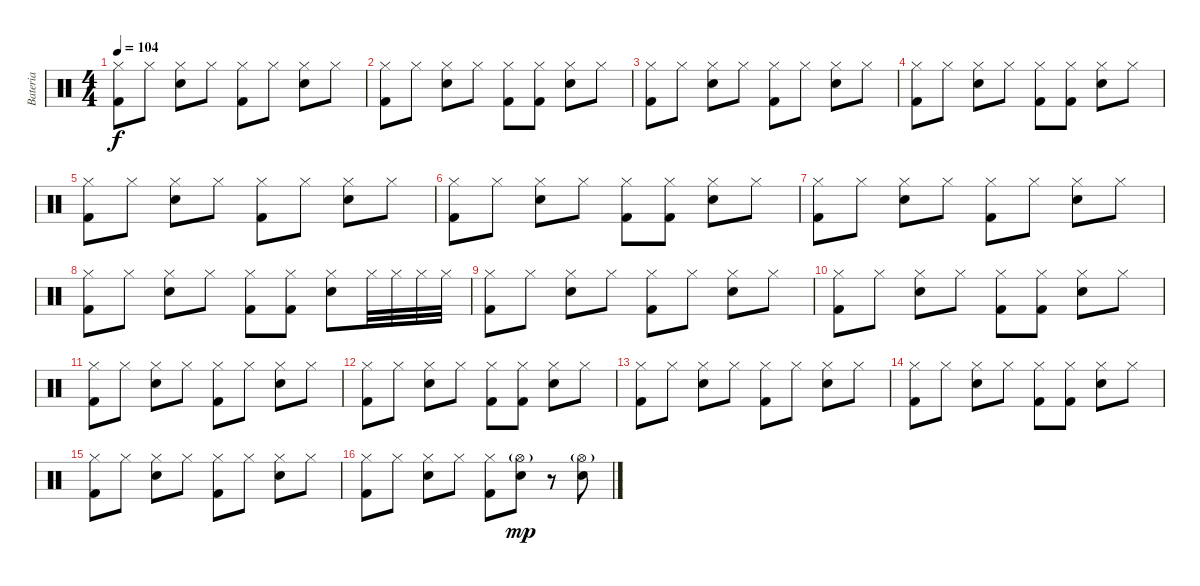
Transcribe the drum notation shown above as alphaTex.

\track ("Bateria" "Bateria") {instrument percussion}
\staff {score}
\articulation defaults
\ts (4 4)
\tempo 104
\clef neutral
\ks c
("Hi-Hat (closed)" "Kick (hit) 2").8{dy f} "Hi-Hat (closed)".8 ("Hi-Hat (closed)" "Snare (hit) 2").8 "Hi-Hat (closed)".8 ("Hi-Hat (closed)" "Kick (hit) 2").8 "Hi-Hat (closed)".8 ("Hi-Hat (closed)" "Snare (hit) 2").8 "Hi-Hat (closed)".8 |
("Hi-Hat (closed)" "Kick (hit) 2").8 "Hi-Hat (closed)".8 ("Hi-Hat (closed)" "Snare (hit) 2").8 "Hi-Hat (closed)".8 ("Hi-Hat (closed)" "Kick (hit) 2").8 ("Hi-Hat (closed)" "Kick (hit) 2").8 ("Hi-Hat (closed)" "Snare (hit) 2").8 "Hi-Hat (closed)".8 |
("Hi-Hat (closed)" "Kick (hit) 2").8 "Hi-Hat (closed)".8 ("Hi-Hat (closed)" "Snare (hit) 2").8 "Hi-Hat (closed)".8 ("Hi-Hat (closed)" "Kick (hit) 2").8 "Hi-Hat (closed)".8 ("Hi-Hat (closed)" "Snare (hit) 2").8 "Hi-Hat (closed)".8 |
("Hi-Hat (closed)" "Kick (hit) 2").8 "Hi-Hat (closed)".8 ("Hi-Hat (closed)" "Snare (hit) 2").8 "Hi-Hat (closed)".8 ("Hi-Hat (closed)" "Kick (hit) 2").8 ("Hi-Hat (closed)" "Kick (hit) 2").8 ("Hi-Hat (closed)" "Snare (hit) 2").8 "Hi-Hat (closed)".8 |
("Hi-Hat (closed)" "Kick (hit) 2").8 "Hi-Hat (closed)".8 ("Hi-Hat (closed)" "Snare (hit) 2").8 "Hi-Hat (closed)".8 ("Hi-Hat (closed)" "Kick (hit) 2").8 "Hi-Hat (closed)".8 ("Hi-Hat (closed)" "Snare (hit) 2").8 "Hi-Hat (closed)".8 |
("Hi-Hat (closed)" "Kick (hit) 2").8 "Hi-Hat (closed)".8 ("Hi-Hat (closed)" "Snare (hit) 2").8 "Hi-Hat (closed)".8 ("Hi-Hat (closed)" "Kick (hit) 2").8 ("Hi-Hat (closed)" "Kick (hit) 2").8 ("Hi-Hat (closed)" "Snare (hit) 2").8 "Hi-Hat (closed)".8 |
("Hi-Hat (closed)" "Kick (hit) 2").8 "Hi-Hat (closed)".8 ("Hi-Hat (closed)" "Snare (hit) 2").8 "Hi-Hat (closed)".8 ("Hi-Hat (closed)" "Kick (hit) 2").8 "Hi-Hat (closed)".8 ("Hi-Hat (closed)" "Snare (hit) 2").8 "Hi-Hat (closed)".8 |
("Hi-Hat (closed)" "Kick (hit) 2").8 "Hi-Hat (closed)".8 ("Hi-Hat (closed)" "Snare (hit) 2").8 "Hi-Hat (closed)".8 ("Hi-Hat (closed)" "Kick (hit) 2").8 ("Hi-Hat (closed)" "Kick (hit) 2").8 ("Hi-Hat (closed)" "Snare (hit) 2").8 "Hi-Hat (closed)".32 "Hi-Hat (closed)".32 "Hi-Hat (closed)".32 "Hi-Hat (closed)".32 |
("Hi-Hat (closed)" "Kick (hit) 2").8 "Hi-Hat (closed)".8 ("Hi-Hat (closed)" "Snare (hit) 2").8 "Hi-Hat (closed)".8 ("Hi-Hat (closed)" "Kick (hit) 2").8 "Hi-Hat (closed)".8 ("Hi-Hat (closed)" "Snare (hit) 2").8 "Hi-Hat (closed)".8 |
("Hi-Hat (closed)" "Kick (hit) 2").8 "Hi-Hat (closed)".8 ("Hi-Hat (closed)" "Snare (hit) 2").8 "Hi-Hat (closed)".8 ("Hi-Hat (closed)" "Kick (hit) 2").8 ("Hi-Hat (closed)" "Kick (hit) 2").8 ("Hi-Hat (closed)" "Snare (hit) 2").8 "Hi-Hat (closed)".8 |
("Hi-Hat (closed)" "Kick (hit) 2").8 "Hi-Hat (closed)".8 ("Hi-Hat (closed)" "Snare (hit) 2").8 "Hi-Hat (closed)".8 ("Hi-Hat (closed)" "Kick (hit) 2").8 "Hi-Hat (closed)".8 ("Hi-Hat (closed)" "Snare (hit) 2").8 "Hi-Hat (closed)".8 |
("Hi-Hat (closed)" "Kick (hit) 2").8 "Hi-Hat (closed)".8 ("Hi-Hat (closed)" "Snare (hit) 2").8 "Hi-Hat (closed)".8 ("Hi-Hat (closed)" "Kick (hit) 2").8 ("Hi-Hat (closed)" "Kick (hit) 2").8 ("Hi-Hat (closed)" "Snare (hit) 2").8 "Hi-Hat (closed)".8 |
("Hi-Hat (closed)" "Kick (hit) 2").8 "Hi-Hat (closed)".8 ("Hi-Hat (closed)" "Snare (hit) 2").8 "Hi-Hat (closed)".8 ("Hi-Hat (closed)" "Kick (hit) 2").8 "Hi-Hat (closed)".8 ("Hi-Hat (closed)" "Snare (hit) 2").8 "Hi-Hat (closed)".8 |
("Hi-Hat (closed)" "Kick (hit) 2").8 "Hi-Hat (closed)".8 ("Hi-Hat (closed)" "Snare (hit) 2").8 "Hi-Hat (closed)".8 ("Hi-Hat (closed)" "Kick (hit) 2").8 ("Hi-Hat (closed)" "Kick (hit) 2").8 ("Hi-Hat (closed)" "Snare (hit) 2").8 "Hi-Hat (closed)".8 |
("Hi-Hat (closed)" "Kick (hit) 2").8 "Hi-Hat (closed)".8 ("Hi-Hat (closed)" "Snare (hit) 2").8 "Hi-Hat (closed)".8 ("Hi-Hat (closed)" "Kick (hit) 2").8 "Hi-Hat (closed)".8 ("Hi-Hat (closed)" "Snare (hit) 2").8 "Hi-Hat (closed)".8 |
("Hi-Hat (closed)" "Kick (hit) 2").8 "Hi-Hat (closed)".8 ("Hi-Hat (closed)" "Snare (hit) 2").8 "Hi-Hat (closed)".8 ("Hi-Hat (closed)" "Kick (hit) 2").8 ("Hi-Hat (open)"{g} "Snare (hit) 2").8{dy mp} r.8 ("Hi-Hat (open)"{g} "Snare (hit) 2").8
